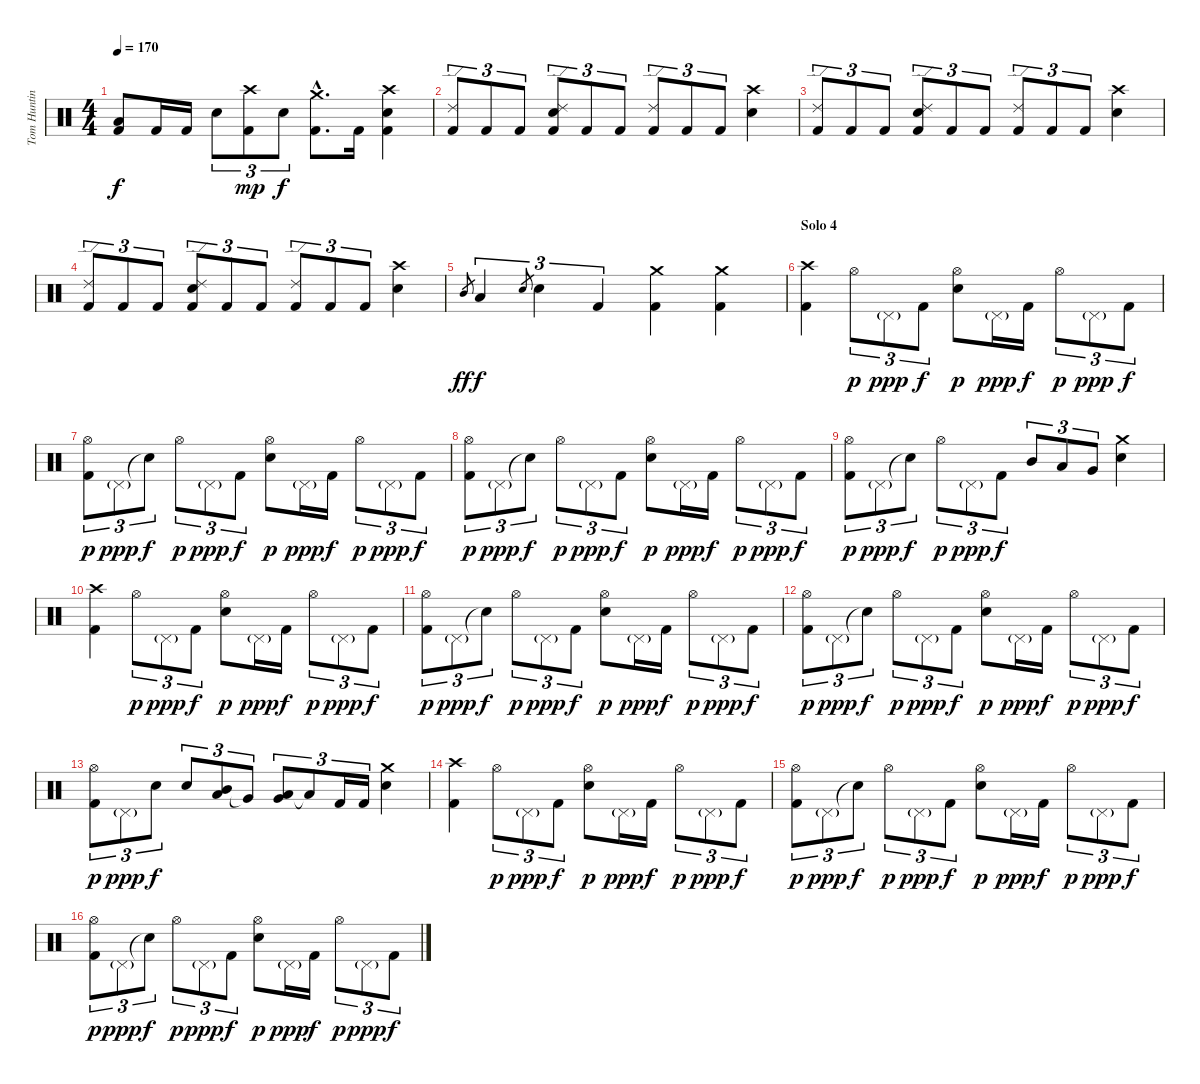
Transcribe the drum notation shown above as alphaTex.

\track ("Tom Hunting" "Tom Huntin") {instrument percussion}
\staff {score}
\articulation defaults
\ts (4 4)
\tempo 170
\clef neutral
\ks c
("Kick (hit) 2" "Low Tom (hit)").8{dy f} "Kick (hit) 2".16 "Kick (hit) 2".16 "Snare (hit) 2".8{tu (3 2)} ("Kick (hit) 2" "Crash high (hit)").8{tu (3 2) dy mp} "Snare (hit) 2".8{tu (3 2) dy f} ("Kick (hit) 2"{hac} "Crash medium (hit)"{hac}).8{d} "Kick (hit) 2".16 ("Kick (hit) 2" "Crash high (hit)" "Snare (hit) 2").4 |
("Kick (hit) 2" "Ride (edge) 2").8{tu (3 2)} "Kick (hit) 2".8{tu (3 2)} "Kick (hit) 2".8{tu (3 2)} ("Kick (hit) 2" "Ride (edge) 2" "Snare (hit) 2").8{tu (3 2)} "Kick (hit) 2".8{tu (3 2)} "Kick (hit) 2".8{tu (3 2)} ("Kick (hit) 2" "Ride (edge) 2").8{tu (3 2)} "Kick (hit) 2".8{tu (3 2)} "Kick (hit) 2".8{tu (3 2)} ("Crash high (hit)" "Snare (hit) 2").4 |
("Kick (hit) 2" "Ride (edge) 2").8{tu (3 2)} "Kick (hit) 2".8{tu (3 2)} "Kick (hit) 2".8{tu (3 2)} ("Kick (hit) 2" "Ride (edge) 2" "Snare (hit) 2").8{tu (3 2)} "Kick (hit) 2".8{tu (3 2)} "Kick (hit) 2".8{tu (3 2)} ("Kick (hit) 2" "Ride (edge) 2").8{tu (3 2)} "Kick (hit) 2".8{tu (3 2)} "Kick (hit) 2".8{tu (3 2)} ("Crash high (hit)" "Snare (hit) 2").4 |
("Kick (hit) 2" "Ride (edge) 2").8{tu (3 2)} "Kick (hit) 2".8{tu (3 2)} "Kick (hit) 2".8{tu (3 2)} ("Kick (hit) 2" "Ride (edge) 2" "Snare (hit) 2").8{tu (3 2)} "Kick (hit) 2".8{tu (3 2)} "Kick (hit) 2".8{tu (3 2)} ("Kick (hit) 2" "Ride (edge) 2").8{tu (3 2)} "Kick (hit) 2".8{tu (3 2)} "Kick (hit) 2".8{tu (3 2)} ("Crash high (hit)" "Snare (hit) 2").4 |
"Mid Tom (hit)".8{gr dy ff} "Low Tom (hit)".4{tu (3 2) dy f} "Snare (hit) 2".8{gr} "Snare (hit) 2".4{tu (3 2)} "Kick (hit) 2".4{tu (3 2)} ("Kick (hit) 2" "Crash medium (hit)").4 ("Kick (hit) 2" "Crash medium (hit)").4 |
\section ("" "Solo 4")
("Kick (hit) 2" "Crash high (hit)").4 "Hi-Hat (open)".8{tu (3 2) dy p} "Pedal Hi-Hat (hit)"{g}.8{tu (3 2) dy ppp} "Kick (hit) 2".8{tu (3 2) dy f} ("Hi-Hat (open)" "Snare (hit) 2").8{dy p} "Pedal Hi-Hat (hit)"{g}.16{dy ppp} "Kick (hit) 2".16{dy f} "Hi-Hat (open)".8{tu (3 2) dy p} "Pedal Hi-Hat (hit)"{g}.8{tu (3 2) dy ppp} "Kick (hit) 2".8{tu (3 2) dy f} |
("Kick (hit) 2" "Hi-Hat (open)").8{tu (3 2) dy p} "Pedal Hi-Hat (hit)"{g}.8{tu (3 2) dy ppp} "Snare (hit)"{t}.8{tu (3 2) dy f} "Hi-Hat (open)".8{tu (3 2) dy p} "Pedal Hi-Hat (hit)"{g}.8{tu (3 2) dy ppp} "Kick (hit) 2".8{tu (3 2) dy f} ("Hi-Hat (open)" "Snare (hit) 2").8{dy p} "Pedal Hi-Hat (hit)"{g}.16{dy ppp} "Kick (hit) 2".16{dy f} "Hi-Hat (open)".8{tu (3 2) dy p} "Pedal Hi-Hat (hit)"{g}.8{tu (3 2) dy ppp} "Kick (hit) 2".8{tu (3 2) dy f} |
("Kick (hit) 2" "Hi-Hat (open)").8{tu (3 2) dy p} "Pedal Hi-Hat (hit)"{g}.8{tu (3 2) dy ppp} "Snare (hit)"{t}.8{tu (3 2) dy f} "Hi-Hat (open)".8{tu (3 2) dy p} "Pedal Hi-Hat (hit)"{g}.8{tu (3 2) dy ppp} "Kick (hit) 2".8{tu (3 2) dy f} ("Hi-Hat (open)" "Snare (hit) 2").8{dy p} "Pedal Hi-Hat (hit)"{g}.16{dy ppp} "Kick (hit) 2".16{dy f} "Hi-Hat (open)".8{tu (3 2) dy p} "Pedal Hi-Hat (hit)"{g}.8{tu (3 2) dy ppp} "Kick (hit) 2".8{tu (3 2) dy f} |
("Kick (hit) 2" "Hi-Hat (open)").8{tu (3 2) dy p} "Pedal Hi-Hat (hit)"{g}.8{tu (3 2) dy ppp} "Snare (hit)"{t}.8{tu (3 2) dy f} "Hi-Hat (open)".8{tu (3 2) dy p} "Pedal Hi-Hat (hit)"{g}.8{tu (3 2) dy ppp} "Kick (hit) 2".8{tu (3 2) dy f} "Mid Tom (hit)".8{tu (3 2)} "Low Tom (hit)".8{tu (3 2)} "Very Low Tom (hit)".8{tu (3 2)} ("Crash medium (hit)" "Snare (hit) 2").4 |
("Kick (hit) 2" "Crash high (hit)").4 "Hi-Hat (open)".8{tu (3 2) dy p} "Pedal Hi-Hat (hit)"{g}.8{tu (3 2) dy ppp} "Kick (hit) 2".8{tu (3 2) dy f} ("Hi-Hat (open)" "Snare (hit) 2").8{dy p} "Pedal Hi-Hat (hit)"{g}.16{dy ppp} "Kick (hit) 2".16{dy f} "Hi-Hat (open)".8{tu (3 2) dy p} "Pedal Hi-Hat (hit)"{g}.8{tu (3 2) dy ppp} "Kick (hit) 2".8{tu (3 2) dy f} |
("Kick (hit) 2" "Hi-Hat (open)").8{tu (3 2) dy p} "Pedal Hi-Hat (hit)"{g}.8{tu (3 2) dy ppp} "Snare (hit)"{t}.8{tu (3 2) dy f} "Hi-Hat (open)".8{tu (3 2) dy p} "Pedal Hi-Hat (hit)"{g}.8{tu (3 2) dy ppp} "Kick (hit) 2".8{tu (3 2) dy f} ("Hi-Hat (open)" "Snare (hit) 2").8{dy p} "Pedal Hi-Hat (hit)"{g}.16{dy ppp} "Kick (hit) 2".16{dy f} "Hi-Hat (open)".8{tu (3 2) dy p} "Pedal Hi-Hat (hit)"{g}.8{tu (3 2) dy ppp} "Kick (hit) 2".8{tu (3 2) dy f} |
("Kick (hit) 2" "Hi-Hat (open)").8{tu (3 2) dy p} "Pedal Hi-Hat (hit)"{g}.8{tu (3 2) dy ppp} "Snare (hit)"{t}.8{tu (3 2) dy f} "Hi-Hat (open)".8{tu (3 2) dy p} "Pedal Hi-Hat (hit)"{g}.8{tu (3 2) dy ppp} "Kick (hit) 2".8{tu (3 2) dy f} ("Hi-Hat (open)" "Snare (hit) 2").8{dy p} "Pedal Hi-Hat (hit)"{g}.16{dy ppp} "Kick (hit) 2".16{dy f} "Hi-Hat (open)".8{tu (3 2) dy p} "Pedal Hi-Hat (hit)"{g}.8{tu (3 2) dy ppp} "Kick (hit) 2".8{tu (3 2) dy f} |
("Kick (hit) 2" "Hi-Hat (open)").8{tu (3 2) dy p} "Pedal Hi-Hat (hit)"{g}.8{tu (3 2) dy ppp} "Snare (hit) 2".8{tu (3 2) dy f} "Snare (hit) 2".8{tu (3 2)} ("Mid Tom (hit)" "Low Tom (hit)").8{tu (3 2)} "Very Low Tom (hit)"{t}.8{tu (3 2)} ("Low Tom (hit)" "Very Low Tom (hit)").8{tu (3 2)} "Low Tom (hit)"{t}.8{tu (3 2)} "Kick (hit) 2".16{tu (3 2)} "Kick (hit) 2".16{tu (3 2)} ("Crash medium (hit)" "Snare (hit) 2").4 |
("Kick (hit) 2" "Crash high (hit)").4 "Hi-Hat (open)".8{tu (3 2) dy p} "Pedal Hi-Hat (hit)"{g}.8{tu (3 2) dy ppp} "Kick (hit) 2".8{tu (3 2) dy f} ("Hi-Hat (open)" "Snare (hit) 2").8{dy p} "Pedal Hi-Hat (hit)"{g}.16{dy ppp} "Kick (hit) 2".16{dy f} "Hi-Hat (open)".8{tu (3 2) dy p} "Pedal Hi-Hat (hit)"{g}.8{tu (3 2) dy ppp} "Kick (hit) 2".8{tu (3 2) dy f} |
("Kick (hit) 2" "Hi-Hat (open)").8{tu (3 2) dy p} "Pedal Hi-Hat (hit)"{g}.8{tu (3 2) dy ppp} "Snare (hit)"{t}.8{tu (3 2) dy f} "Hi-Hat (open)".8{tu (3 2) dy p} "Pedal Hi-Hat (hit)"{g}.8{tu (3 2) dy ppp} "Kick (hit) 2".8{tu (3 2) dy f} ("Hi-Hat (open)" "Snare (hit) 2").8{dy p} "Pedal Hi-Hat (hit)"{g}.16{dy ppp} "Kick (hit) 2".16{dy f} "Hi-Hat (open)".8{tu (3 2) dy p} "Pedal Hi-Hat (hit)"{g}.8{tu (3 2) dy ppp} "Kick (hit) 2".8{tu (3 2) dy f} |
("Kick (hit) 2" "Hi-Hat (open)").8{tu (3 2) dy p} "Pedal Hi-Hat (hit)"{g}.8{tu (3 2) dy ppp} "Snare (hit)"{t}.8{tu (3 2) dy f} "Hi-Hat (open)".8{tu (3 2) dy p} "Pedal Hi-Hat (hit)"{g}.8{tu (3 2) dy ppp} "Kick (hit) 2".8{tu (3 2) dy f} ("Hi-Hat (open)" "Snare (hit) 2").8{dy p} "Pedal Hi-Hat (hit)"{g}.16{dy ppp} "Kick (hit) 2".16{dy f} "Hi-Hat (open)".8{tu (3 2) dy p} "Pedal Hi-Hat (hit)"{g}.8{tu (3 2) dy ppp} "Kick (hit) 2".8{tu (3 2) dy f}
